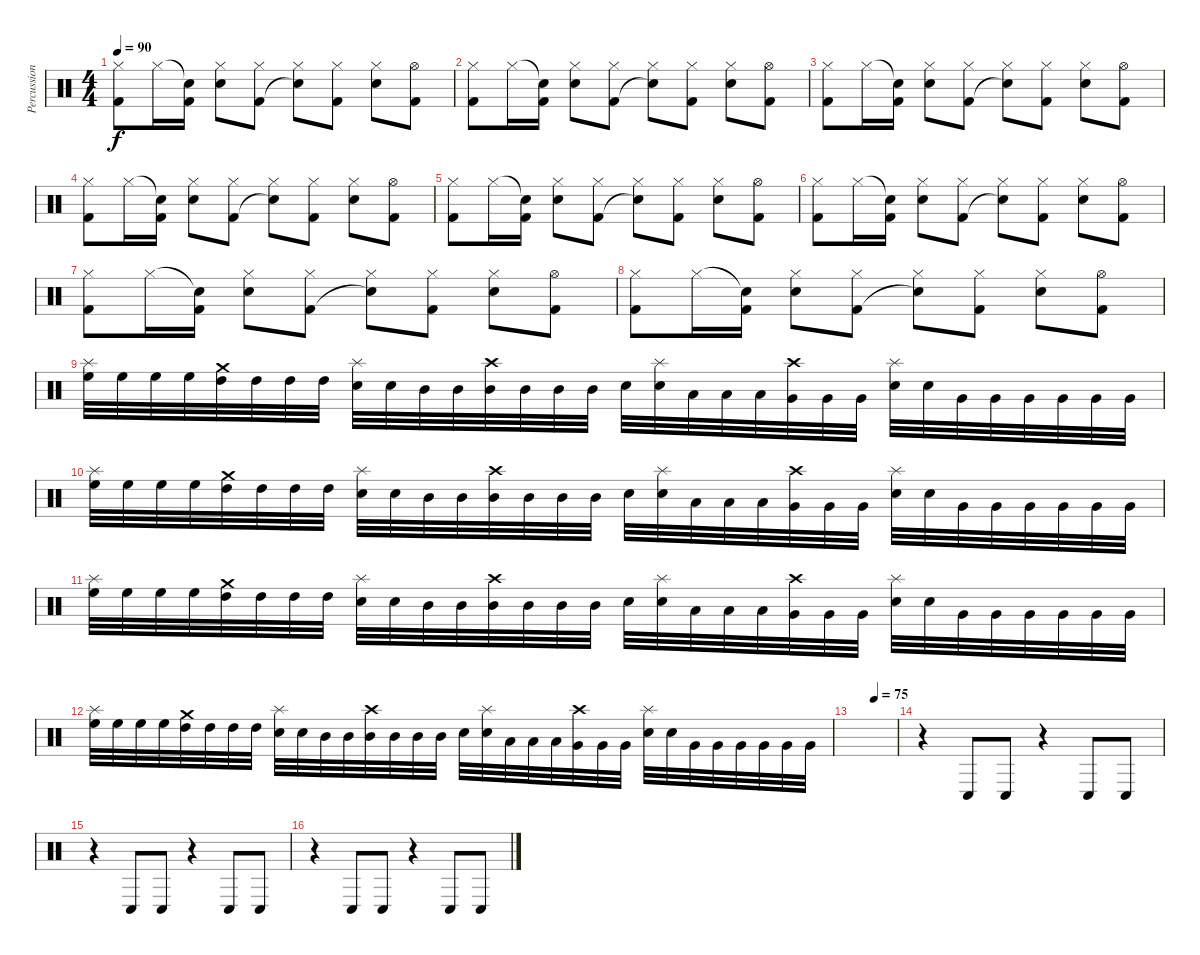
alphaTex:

\track ("Percussions" "Percussion") {instrument percussion}
\staff {score}
\articulation defaults
\ts (4 4)
\tempo 90
\clef neutral
\ks c
("Hi-Hat (closed)" "Kick (hit) 2").8{dy f} "Hi-Hat (closed)".16 ("Snare (hit)"{t} "Kick (hit) 2").16 ("Hi-Hat (closed)" "Electric Snare (hit)").8 ("Hi-Hat (closed)" "Kick (hit) 2").8 ("Hi-Hat (closed)" "Snare (hit)"{t}).8 ("Hi-Hat (closed)" "Kick (hit) 2").8 ("Hi-Hat (closed)" "Electric Snare (hit)").8 ("Hi-Hat (open)" "Kick (hit) 2").8 |
("Hi-Hat (closed)" "Kick (hit) 2").8 "Hi-Hat (closed)".16 ("Snare (hit)"{t} "Kick (hit) 2").16 ("Hi-Hat (closed)" "Electric Snare (hit)").8 ("Hi-Hat (closed)" "Kick (hit) 2").8 ("Hi-Hat (closed)" "Snare (hit)"{t}).8 ("Hi-Hat (closed)" "Kick (hit) 2").8 ("Hi-Hat (closed)" "Electric Snare (hit)").8 ("Hi-Hat (open)" "Kick (hit) 2").8 |
("Hi-Hat (closed)" "Kick (hit) 2").8 "Hi-Hat (closed)".16 ("Snare (hit)"{t} "Kick (hit) 2").16 ("Hi-Hat (closed)" "Electric Snare (hit)").8 ("Hi-Hat (closed)" "Kick (hit) 2").8 ("Hi-Hat (closed)" "Snare (hit)"{t}).8 ("Hi-Hat (closed)" "Kick (hit) 2").8 ("Hi-Hat (closed)" "Electric Snare (hit)").8 ("Hi-Hat (open)" "Kick (hit) 2").8 |
("Hi-Hat (closed)" "Kick (hit) 2").8 "Hi-Hat (closed)".16 ("Snare (hit)"{t} "Kick (hit) 2").16 ("Hi-Hat (closed)" "Electric Snare (hit)").8 ("Hi-Hat (closed)" "Kick (hit) 2").8 ("Hi-Hat (closed)" "Snare (hit)"{t}).8 ("Hi-Hat (closed)" "Kick (hit) 2").8 ("Hi-Hat (closed)" "Electric Snare (hit)").8 ("Hi-Hat (open)" "Kick (hit) 2").8 |
("Hi-Hat (closed)" "Kick (hit) 2").8 "Hi-Hat (closed)".16 ("Snare (hit)"{t} "Kick (hit) 2").16 ("Hi-Hat (closed)" "Electric Snare (hit)").8 ("Hi-Hat (closed)" "Kick (hit) 2").8 ("Hi-Hat (closed)" "Snare (hit)"{t}).8 ("Hi-Hat (closed)" "Kick (hit) 2").8 ("Hi-Hat (closed)" "Electric Snare (hit)").8 ("Hi-Hat (open)" "Kick (hit) 2").8 |
("Hi-Hat (closed)" "Kick (hit) 2").8 "Hi-Hat (closed)".16 ("Snare (hit)"{t} "Kick (hit) 2").16 ("Hi-Hat (closed)" "Electric Snare (hit)").8 ("Hi-Hat (closed)" "Kick (hit) 2").8 ("Hi-Hat (closed)" "Snare (hit)"{t}).8 ("Hi-Hat (closed)" "Kick (hit) 2").8 ("Hi-Hat (closed)" "Electric Snare (hit)").8 ("Hi-Hat (open)" "Kick (hit) 2").8 |
("Hi-Hat (closed)" "Kick (hit) 2").8 "Hi-Hat (closed)".16 ("Snare (hit)"{t} "Kick (hit) 2").16 ("Hi-Hat (closed)" "Electric Snare (hit)").8 ("Hi-Hat (closed)" "Kick (hit) 2").8 ("Hi-Hat (closed)" "Snare (hit)"{t}).8 ("Hi-Hat (closed)" "Kick (hit) 2").8 ("Hi-Hat (closed)" "Electric Snare (hit)").8 ("Hi-Hat (open)" "Kick (hit) 2").8 |
("Hi-Hat (closed)" "Kick (hit) 2").8 "Hi-Hat (closed)".16 ("Snare (hit)"{t} "Kick (hit) 2").16 ("Hi-Hat (closed)" "Electric Snare (hit)").8 ("Hi-Hat (closed)" "Kick (hit) 2").8 ("Hi-Hat (closed)" "Snare (hit)"{t}).8 ("Hi-Hat (closed)" "Kick (hit) 2").8 ("Hi-Hat (closed)" "Electric Snare (hit)").8 ("Hi-Hat (open)" "Kick (hit) 2").8 |
("Splash (hit)" "High Floor Tom (hit)").32 "High Floor Tom (hit)".32 "High Floor Tom (hit)".32 "High Floor Tom (hit)".32 ("Crash medium (hit)" "High Tom (hit)").32 "High Tom (hit)".32 "High Tom (hit)".32 "High Tom (hit)".32 ("Splash (hit)" "Electric Snare (hit)").32 "Electric Snare (hit)".32 "Mid Tom (hit)".32 "Mid Tom (hit)".32 ("Crash high (hit)" "Mid Tom (hit)").32 "Mid Tom (hit)".32 "Mid Tom (hit)".32 "Mid Tom (hit)".32 "Electric Snare (hit)".32 ("Splash (hit)" "Electric Snare (hit)").32 "Low Tom (hit)".32 "Low Tom (hit)".32 "Low Tom (hit)".32 ("Crash high (hit)" "Very Low Tom (hit)").32 "Very Low Tom (hit)".32 "Very Low Tom (hit)".32 ("Splash (hit)" "Electric Snare (hit)").32 "Electric Snare (hit)".32 "Very Low Tom (hit)".32 "Very Low Tom (hit)".32 "Very Low Tom (hit)".32 "Very Low Tom (hit)".32 "Very Low Tom (hit)".32 "Very Low Tom (hit)".32 |
("Splash (hit)" "High Floor Tom (hit)").32 "High Floor Tom (hit)".32 "High Floor Tom (hit)".32 "High Floor Tom (hit)".32 ("Crash medium (hit)" "High Tom (hit)").32 "High Tom (hit)".32 "High Tom (hit)".32 "High Tom (hit)".32 ("Splash (hit)" "Electric Snare (hit)").32 "Electric Snare (hit)".32 "Mid Tom (hit)".32 "Mid Tom (hit)".32 ("Crash high (hit)" "Mid Tom (hit)").32 "Mid Tom (hit)".32 "Mid Tom (hit)".32 "Mid Tom (hit)".32 "Electric Snare (hit)".32 ("Splash (hit)" "Electric Snare (hit)").32 "Low Tom (hit)".32 "Low Tom (hit)".32 "Low Tom (hit)".32 ("Crash high (hit)" "Very Low Tom (hit)").32 "Very Low Tom (hit)".32 "Very Low Tom (hit)".32 ("Splash (hit)" "Electric Snare (hit)").32 "Electric Snare (hit)".32 "Very Low Tom (hit)".32 "Very Low Tom (hit)".32 "Very Low Tom (hit)".32 "Very Low Tom (hit)".32 "Very Low Tom (hit)".32 "Very Low Tom (hit)".32 |
("Splash (hit)" "High Floor Tom (hit)").32 "High Floor Tom (hit)".32 "High Floor Tom (hit)".32 "High Floor Tom (hit)".32 ("Crash medium (hit)" "High Tom (hit)").32 "High Tom (hit)".32 "High Tom (hit)".32 "High Tom (hit)".32 ("Splash (hit)" "Electric Snare (hit)").32 "Electric Snare (hit)".32 "Mid Tom (hit)".32 "Mid Tom (hit)".32 ("Crash high (hit)" "Mid Tom (hit)").32 "Mid Tom (hit)".32 "Mid Tom (hit)".32 "Mid Tom (hit)".32 "Electric Snare (hit)".32 ("Splash (hit)" "Electric Snare (hit)").32 "Low Tom (hit)".32 "Low Tom (hit)".32 "Low Tom (hit)".32 ("Crash high (hit)" "Very Low Tom (hit)").32 "Very Low Tom (hit)".32 "Very Low Tom (hit)".32 ("Splash (hit)" "Electric Snare (hit)").32 "Electric Snare (hit)".32 "Very Low Tom (hit)".32 "Very Low Tom (hit)".32 "Very Low Tom (hit)".32 "Very Low Tom (hit)".32 "Very Low Tom (hit)".32 "Very Low Tom (hit)".32 |
("Splash (hit)" "High Floor Tom (hit)").32 "High Floor Tom (hit)".32 "High Floor Tom (hit)".32 "High Floor Tom (hit)".32 ("Crash medium (hit)" "High Tom (hit)").32 "High Tom (hit)".32 "High Tom (hit)".32 "High Tom (hit)".32 ("Splash (hit)" "Electric Snare (hit)").32 "Electric Snare (hit)".32 "Mid Tom (hit)".32 "Mid Tom (hit)".32 ("Crash high (hit)" "Mid Tom (hit)").32 "Mid Tom (hit)".32 "Mid Tom (hit)".32 "Mid Tom (hit)".32 "Electric Snare (hit)".32 ("Splash (hit)" "Electric Snare (hit)").32 "Low Tom (hit)".32 "Low Tom (hit)".32 "Low Tom (hit)".32 ("Crash high (hit)" "Very Low Tom (hit)").32 "Very Low Tom (hit)".32 "Very Low Tom (hit)".32 ("Splash (hit)" "Electric Snare (hit)").32 "Electric Snare (hit)".32 "Very Low Tom (hit)".32 "Very Low Tom (hit)".32 "Very Low Tom (hit)".32 "Very Low Tom (hit)".32 "Very Low Tom (hit)".32 "Very Low Tom (hit)".32 |
\tempo (75 0.5)
|
r.4{volume 10} "Conga low (hit)".8 "Conga low (hit)".8 r.4 "Conga low (hit)".8 "Conga low (hit)".8 |
r.4 "Conga low (hit)".8 "Conga low (hit)".8 r.4 "Conga low (hit)".8 "Conga low (hit)".8 |
r.4 "Conga low (hit)".8 "Conga low (hit)".8 r.4 "Conga low (hit)".8 "Conga low (hit)".8
